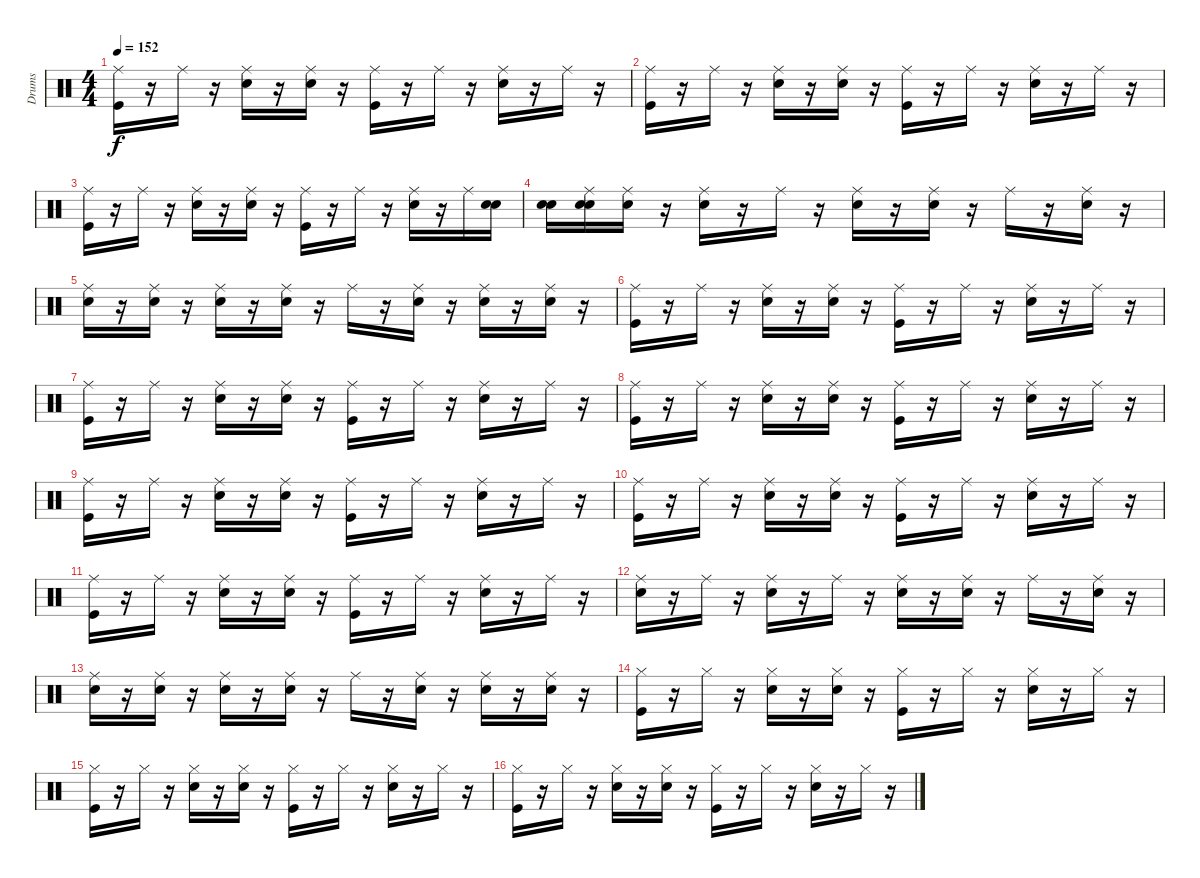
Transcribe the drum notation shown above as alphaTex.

\track ("Drums               " "Drums     ") {instrument percussion}
\staff {score}
\articulation defaults
\ts (4 4)
\tempo 152
\clef neutral
\ks c
("Kick (hit)" "Ride (middle)").16{dy f} r.16 "Ride (middle)".16 r.16 ("Electric Snare (hit)" "Ride (middle)").16 r.16 ("Electric Snare (hit)" "Ride (middle)").16 r.16 ("Kick (hit)" "Ride (middle)").16 r.16 "Ride (middle)".16 r.16 ("Electric Snare (hit)" "Ride (middle)").16 r.16 "Ride (middle)".16 r.16 |
("Kick (hit)" "Ride (middle)").16 r.16 "Ride (middle)".16 r.16 ("Electric Snare (hit)" "Ride (middle)").16 r.16 ("Electric Snare (hit)" "Ride (middle)").16 r.16 ("Kick (hit)" "Ride (middle)").16 r.16 "Ride (middle)".16 r.16 ("Electric Snare (hit)" "Ride (middle)").16 r.16 "Ride (middle)".16 r.16 |
("Kick (hit)" "Ride (middle)").16 r.16 "Ride (middle)".16 r.16 ("Electric Snare (hit)" "Ride (middle)").16 r.16 ("Electric Snare (hit)" "Ride (middle)").16 r.16 ("Ride (middle)" "Kick (hit)").16 r.16 "Ride (middle)".16 r.16 ("Electric Snare (hit)" "Ride (middle)").16 r.16 "Ride (middle)".16 ("Snare (hit)" "Electric Snare (hit)").16 |
("Snare (hit)" "Electric Snare (hit)").16 ("Snare (hit)" "Electric Snare (hit)" "Ride (middle)").16 ("Snare (hit)" "Ride (middle)").16 r.16 ("Electric Snare (hit)" "Ride (middle)").16 r.16 "Ride (middle)".16 r.16 ("Electric Snare (hit)" "Ride (middle)").16 r.16 ("Electric Snare (hit)" "Ride (middle)").16 r.16 "Ride (middle)".16 r.16 ("Ride (middle)" "Electric Snare (hit)").16 r.16 |
("Electric Snare (hit)" "Ride (middle)").16 r.16 ("Electric Snare (hit)" "Ride (middle)").16 r.16 ("Electric Snare (hit)" "Ride (middle)").16 r.16 ("Electric Snare (hit)" "Ride (middle)").16 r.16 "Ride (middle)".16 r.16 ("Electric Snare (hit)" "Ride (middle)").16 r.16 ("Electric Snare (hit)" "Ride (middle)").16 r.16 ("Electric Snare (hit)" "Ride (middle)").16 r.16 |
("Kick (hit)" "Ride (middle)").16 r.16 "Ride (middle)".16 r.16 ("Ride (middle)" "Electric Snare (hit)").16 r.16 ("Electric Snare (hit)" "Ride (middle)").16 r.16 ("Kick (hit)" "Ride (middle)").16 r.16 "Ride (middle)".16 r.16 ("Electric Snare (hit)" "Ride (middle)").16 r.16 "Ride (middle)".16 r.16 |
("Kick (hit)" "Ride (middle)").16 r.16 "Ride (middle)".16 r.16 ("Electric Snare (hit)" "Ride (middle)").16 r.16 ("Electric Snare (hit)" "Ride (middle)").16 r.16 ("Kick (hit)" "Ride (middle)").16 r.16 "Ride (middle)".16 r.16 ("Electric Snare (hit)" "Ride (middle)").16 r.16 "Ride (middle)".16 r.16 |
("Kick (hit)" "Ride (middle)").16 r.16 "Ride (middle)".16 r.16 ("Electric Snare (hit)" "Ride (middle)").16 r.16 ("Electric Snare (hit)" "Ride (middle)").16 r.16 ("Kick (hit)" "Ride (middle)").16 r.16 "Ride (middle)".16 r.16 ("Electric Snare (hit)" "Ride (middle)").16 r.16 "Ride (middle)".16 r.16 |
("Ride (middle)" "Kick (hit)").16 r.16 "Ride (middle)".16 r.16 ("Electric Snare (hit)" "Ride (middle)").16 r.16 ("Electric Snare (hit)" "Ride (middle)").16 r.16 ("Kick (hit)" "Ride (middle)").16 r.16 "Ride (middle)".16 r.16 ("Electric Snare (hit)" "Ride (middle)").16 r.16 "Ride (middle)".16 r.16 |
("Kick (hit)" "Ride (middle)").16 r.16 "Ride (middle)".16 r.16 ("Electric Snare (hit)" "Ride (middle)").16 r.16 ("Ride (middle)" "Electric Snare (hit)").16 r.16 ("Kick (hit)" "Ride (middle)").16 r.16 "Ride (middle)".16 r.16 ("Electric Snare (hit)" "Ride (middle)").16 r.16 "Ride (middle)".16 r.16 |
("Kick (hit)" "Ride (middle)").16 r.16 "Ride (middle)".16 r.16 ("Electric Snare (hit)" "Ride (middle)").16 r.16 ("Electric Snare (hit)" "Ride (middle)").16 r.16 ("Kick (hit)" "Ride (middle)").16 r.16 "Ride (middle)".16 r.16 ("Ride (middle)" "Electric Snare (hit)").16 r.16 "Ride (middle)".16 r.16 |
("Electric Snare (hit)" "Ride (middle)").16 r.16 "Ride (middle)".16 r.16 ("Electric Snare (hit)" "Ride (middle)").16 r.16 "Ride (middle)".16 r.16 ("Electric Snare (hit)" "Ride (middle)").16 r.16 ("Electric Snare (hit)" "Ride (middle)").16 r.16 "Ride (middle)".16 r.16 ("Electric Snare (hit)" "Ride (middle)").16 r.16 |
("Electric Snare (hit)" "Ride (middle)").16 r.16 ("Ride (middle)" "Electric Snare (hit)").16 r.16 ("Electric Snare (hit)" "Ride (middle)").16 r.16 ("Electric Snare (hit)" "Ride (middle)").16 r.16 "Ride (middle)".16 r.16 ("Electric Snare (hit)" "Ride (middle)").16 r.16 ("Electric Snare (hit)" "Ride (middle)").16 r.16 ("Electric Snare (hit)" "Ride (middle)").16 r.16 |
("Kick (hit)" "Hi-Hat (closed)").16 r.16 "Hi-Hat (closed)".16 r.16 ("Electric Snare (hit)" "Hi-Hat (closed)").16 r.16 ("Electric Snare (hit)" "Hi-Hat (closed)").16 r.16 ("Hi-Hat (closed)" "Kick (hit)").16 r.16 "Hi-Hat (closed)".16 r.16 ("Electric Snare (hit)" "Hi-Hat (closed)").16 r.16 "Hi-Hat (closed)".16 r.16 |
("Kick (hit)" "Hi-Hat (closed)").16 r.16 "Hi-Hat (closed)".16 r.16 ("Electric Snare (hit)" "Hi-Hat (closed)").16 r.16 ("Electric Snare (hit)" "Hi-Hat (closed)").16 r.16 ("Kick (hit)" "Hi-Hat (closed)").16 r.16 "Hi-Hat (closed)".16 r.16 ("Electric Snare (hit)" "Hi-Hat (closed)").16 r.16 "Hi-Hat (closed)".16 r.16 |
("Kick (hit)" "Hi-Hat (closed)").16 r.16 "Hi-Hat (closed)".16 r.16 ("Electric Snare (hit)" "Hi-Hat (closed)").16 r.16 ("Electric Snare (hit)" "Hi-Hat (closed)").16 r.16 ("Kick (hit)" "Hi-Hat (closed)").16 r.16 "Hi-Hat (closed)".16 r.16 ("Electric Snare (hit)" "Hi-Hat (closed)").16 r.16 "Hi-Hat (closed)".16 r.16
